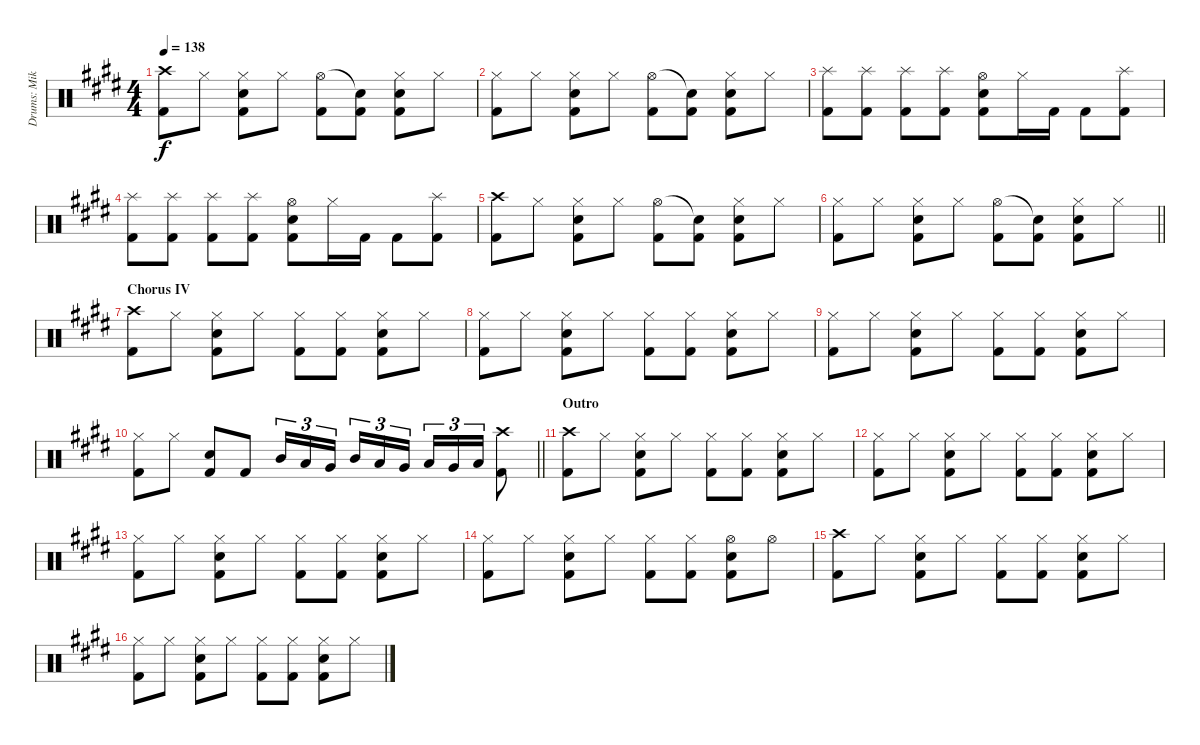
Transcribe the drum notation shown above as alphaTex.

\track ("Drums: Mike" "Drums: Mik") {instrument percussion}
\staff {score}
\articulation defaults
\ts (4 4)
\tempo 138
\clef neutral
\ks e
("Crash high (hit)" "Kick (hit) 2").8{dy f} "Hi-Hat (closed)".8 ("Hi-Hat (closed)" "Electric Snare (hit)" "Kick (hit) 2").8 "Hi-Hat (closed)".8 ("Hi-Hat (open)" "Kick (hit) 2").8 ("Snare (hit)"{t} "Kick (hit) 2").8 ("Hi-Hat (closed)" "Electric Snare (hit)" "Kick (hit) 2").8 "Hi-Hat (closed)".8 |
("Hi-Hat (closed)" "Kick (hit) 2").8 "Hi-Hat (closed)".8 ("Hi-Hat (closed)" "Electric Snare (hit)" "Kick (hit) 2").8 "Hi-Hat (closed)".8 ("Hi-Hat (open)" "Kick (hit) 2").8 ("Snare (hit)"{t} "Kick (hit) 2").8 ("Hi-Hat (closed)" "Electric Snare (hit)" "Kick (hit) 2").8 "Hi-Hat (closed)".8 |
("Splash (hit)" "Kick (hit) 2").8 ("Splash (hit)" "Kick (hit) 2").8 ("Splash (hit)" "Kick (hit) 2").8 ("Splash (hit)" "Kick (hit) 2").8 ("Hi-Hat (open)" "Snare (hit) 2" "Kick (hit) 2").8 "Hi-Hat (closed)".16 "Kick (hit) 2".16 "Kick (hit) 2".8 ("Splash (hit)" "Kick (hit) 2").8 |
("Splash (hit)" "Kick (hit) 2").8 ("Splash (hit)" "Kick (hit) 2").8 ("Splash (hit)" "Kick (hit) 2").8 ("Splash (hit)" "Kick (hit) 2").8 ("Hi-Hat (open)" "Snare (hit) 2" "Kick (hit) 2").8 "Hi-Hat (closed)".16 "Kick (hit) 2".16 "Kick (hit) 2".8 ("Splash (hit)" "Kick (hit) 2").8 |
("Crash high (hit)" "Kick (hit) 2").8 "Hi-Hat (closed)".8 ("Hi-Hat (closed)" "Electric Snare (hit)" "Kick (hit) 2").8 "Hi-Hat (closed)".8 ("Hi-Hat (open)" "Kick (hit) 2").8 ("Snare (hit)"{t} "Kick (hit) 2").8 ("Hi-Hat (closed)" "Electric Snare (hit)" "Kick (hit) 2").8 "Hi-Hat (closed)".8 |
\barLineRight lightlight
("Hi-Hat (closed)" "Kick (hit) 2").8 "Hi-Hat (closed)".8 ("Hi-Hat (closed)" "Electric Snare (hit)" "Kick (hit) 2").8 "Hi-Hat (closed)".8 ("Hi-Hat (open)" "Kick (hit) 2").8 ("Snare (hit)"{t} "Kick (hit) 2").8 ("Hi-Hat (closed)" "Electric Snare (hit)" "Kick (hit) 2").8 "Hi-Hat (closed)".8 |
\section ("" "Chorus IV")
("Crash high (hit)" "Kick (hit) 2").8 "Hi-Hat (closed)".8 ("Hi-Hat (closed)" "Electric Snare (hit)" "Kick (hit) 2").8 "Hi-Hat (closed)".8 ("Hi-Hat (closed)" "Kick (hit) 2").8 ("Hi-Hat (closed)" "Kick (hit) 2").8 ("Hi-Hat (closed)" "Electric Snare (hit)" "Kick (hit) 2").8 "Hi-Hat (closed)".8 |
("Hi-Hat (closed)" "Kick (hit) 2").8 "Hi-Hat (closed)".8 ("Hi-Hat (closed)" "Electric Snare (hit)" "Kick (hit) 2").8 "Hi-Hat (closed)".8 ("Hi-Hat (closed)" "Kick (hit) 2").8 ("Hi-Hat (closed)" "Kick (hit) 2").8 ("Hi-Hat (closed)" "Electric Snare (hit)" "Kick (hit) 2").8 "Hi-Hat (closed)".8 |
("Hi-Hat (closed)" "Kick (hit) 2").8 "Hi-Hat (closed)".8 ("Hi-Hat (closed)" "Electric Snare (hit)" "Kick (hit) 2").8 "Hi-Hat (closed)".8 ("Hi-Hat (closed)" "Kick (hit) 2").8 ("Hi-Hat (closed)" "Kick (hit) 2").8 ("Hi-Hat (closed)" "Electric Snare (hit)" "Kick (hit) 2").8 "Hi-Hat (closed)".8 |
\barLineRight lightlight
("Hi-Hat (closed)" "Kick (hit) 2").8 "Hi-Hat (closed)".8 ("Electric Snare (hit)" "Kick (hit) 2").8 "Kick (hit) 2".8 "Mid Tom (hit)".16{tu (3 2)} "Low Tom (hit)".16{tu (3 2)} "Very Low Tom (hit)".16{tu (3 2) beam splitsecondary} "Mid Tom (hit)".16{tu (3 2)} "Low Tom (hit)".16{tu (3 2)} "Very Low Tom (hit)".16{tu (3 2)} "Low Tom (hit)".16{tu (3 2)} "Very Low Tom (hit)".16{tu (3 2)} "Low Floor Tom (hit)".16{tu (3 2)} ("Crash high (hit)" "Kick (hit) 2").8 |
\section ("" "Outro")
("Crash high (hit)" "Kick (hit) 2").8 "Hi-Hat (closed)".8 ("Hi-Hat (closed)" "Electric Snare (hit)" "Kick (hit) 2").8 "Hi-Hat (closed)".8 ("Hi-Hat (closed)" "Kick (hit) 2").8 ("Hi-Hat (closed)" "Kick (hit) 2").8 ("Hi-Hat (closed)" "Electric Snare (hit)" "Kick (hit) 2").8 "Hi-Hat (closed)".8 |
("Hi-Hat (closed)" "Kick (hit) 2").8 "Hi-Hat (closed)".8 ("Hi-Hat (closed)" "Electric Snare (hit)" "Kick (hit) 2").8 "Hi-Hat (closed)".8 ("Hi-Hat (closed)" "Kick (hit) 2").8 ("Hi-Hat (closed)" "Kick (hit) 2").8 ("Hi-Hat (closed)" "Electric Snare (hit)" "Kick (hit) 2").8 "Hi-Hat (closed)".8 |
("Hi-Hat (closed)" "Kick (hit) 2").8 "Hi-Hat (closed)".8 ("Hi-Hat (closed)" "Electric Snare (hit)" "Kick (hit) 2").8 "Hi-Hat (closed)".8 ("Hi-Hat (closed)" "Kick (hit) 2").8 ("Hi-Hat (closed)" "Kick (hit) 2").8 ("Hi-Hat (closed)" "Electric Snare (hit)" "Kick (hit) 2").8 "Hi-Hat (closed)".8 |
("Hi-Hat (closed)" "Kick (hit) 2").8 "Hi-Hat (closed)".8 ("Hi-Hat (closed)" "Electric Snare (hit)" "Kick (hit) 2").8 "Hi-Hat (closed)".8 ("Hi-Hat (closed)" "Kick (hit) 2").8 ("Hi-Hat (closed)" "Kick (hit) 2").8 ("Hi-Hat (open)" "Electric Snare (hit)" "Kick (hit) 2").8 "Hi-Hat (open)".8 |
("Crash high (hit)" "Kick (hit) 2").8 "Hi-Hat (closed)".8 ("Hi-Hat (closed)" "Electric Snare (hit)" "Kick (hit) 2").8 "Hi-Hat (closed)".8 ("Hi-Hat (closed)" "Kick (hit) 2").8 ("Hi-Hat (closed)" "Kick (hit) 2").8 ("Hi-Hat (closed)" "Electric Snare (hit)" "Kick (hit) 2").8 "Hi-Hat (closed)".8 |
("Hi-Hat (closed)" "Kick (hit) 2").8 "Hi-Hat (closed)".8 ("Hi-Hat (closed)" "Electric Snare (hit)" "Kick (hit) 2").8 "Hi-Hat (closed)".8 ("Hi-Hat (closed)" "Kick (hit) 2").8 ("Hi-Hat (closed)" "Kick (hit) 2").8 ("Hi-Hat (closed)" "Electric Snare (hit)" "Kick (hit) 2").8 "Hi-Hat (closed)".8
